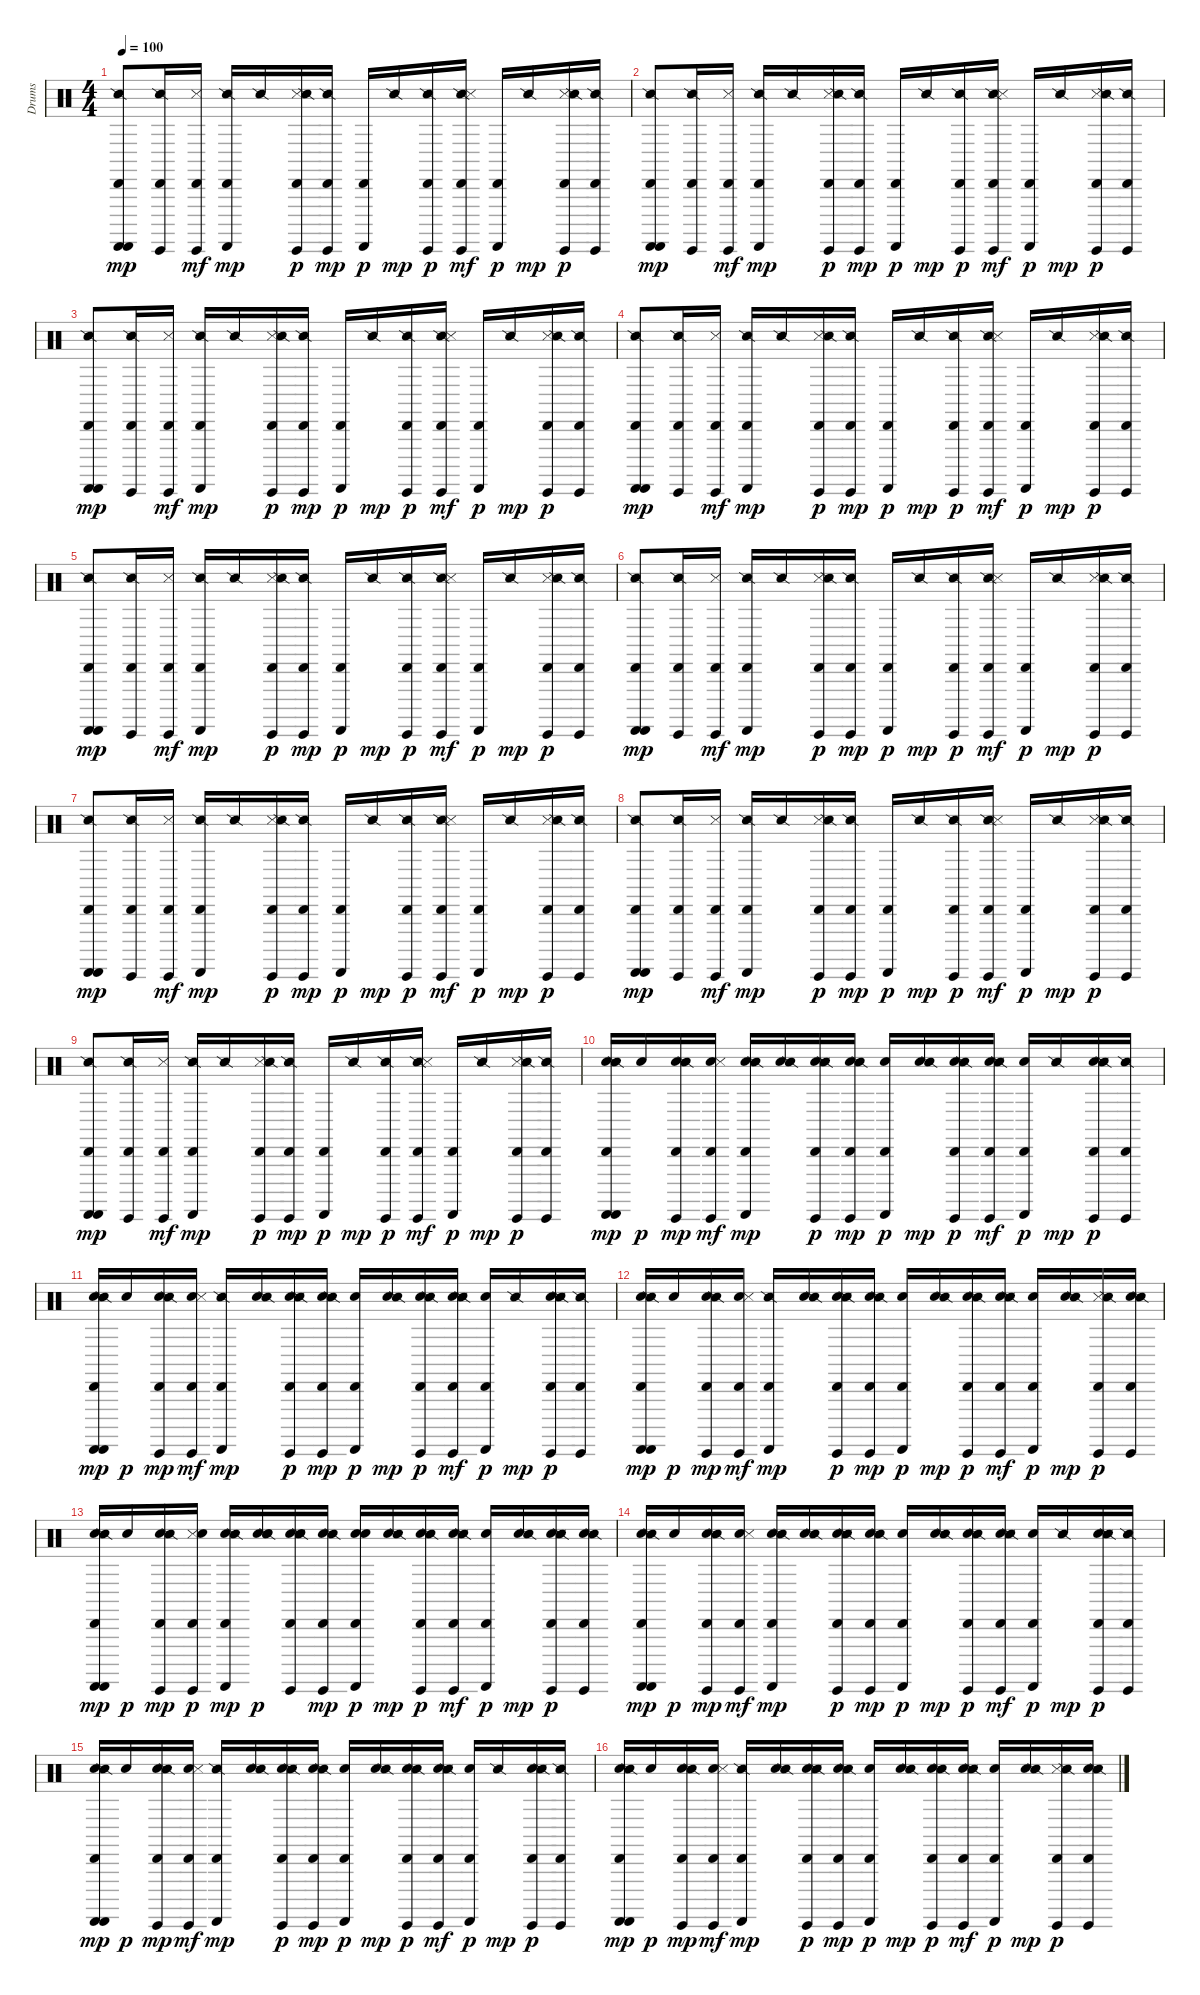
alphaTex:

\track ("Drums" "Drums") {instrument percussion}
\staff {score}
\articulation defaults
\ts (4 4)
\tempo 100
\clef neutral
\ks c
("Cabasa (hit)" "Guiro (scrap-return)" "Guiro (scrap-return)" "Snare (side stick) 2").8{dy mp} ("Cabasa (hit)" "Guiro (hit)" "Snare (side stick) 2").16 ("Guiro (hit)" "Cabasa (hit)" "Metronome (hit)").16{dy mf} ("Cabasa (hit)" "Guiro (scrap-return)" "Snare (side stick) 2").16{dy mp} "Snare (side stick) 2".16 ("Metronome (hit)" "Snare (side stick) 2" "Guiro (hit)" "Cabasa (hit)").16{dy p} ("Guiro (hit)" "Cabasa (hit)" "Snare (side stick) 2").16{dy mp} ("Cabasa (hit)" "Guiro (scrap-return)").16{dy p} "Snare (side stick) 2".16{dy mp} ("Snare (side stick) 2" "Guiro (hit)" "Cabasa (hit)").16{dy p} ("Guiro (hit)" "Snare (side stick) 2" "Cabasa (hit)" "Metronome (hit)").16{dy mf} ("Cabasa (hit)" "Guiro (scrap-return)").16{dy p} "Snare (side stick) 2".16{dy mp} ("Metronome (hit)" "Guiro (hit)" "Snare (side stick) 2" "Cabasa (hit)").16{dy p} ("Guiro (hit)" "Snare (side stick) 2" "Cabasa (hit)").16 |
("Cabasa (hit)" "Guiro (scrap-return)" "Guiro (scrap-return)" "Snare (side stick) 2").8{dy mp} ("Cabasa (hit)" "Guiro (hit)" "Snare (side stick) 2").16 ("Guiro (hit)" "Cabasa (hit)" "Metronome (hit)").16{dy mf} ("Cabasa (hit)" "Guiro (scrap-return)" "Snare (side stick) 2").16{dy mp} "Snare (side stick) 2".16 ("Metronome (hit)" "Snare (side stick) 2" "Guiro (hit)" "Cabasa (hit)").16{dy p} ("Guiro (hit)" "Cabasa (hit)" "Snare (side stick) 2").16{dy mp} ("Cabasa (hit)" "Guiro (scrap-return)").16{dy p} "Snare (side stick) 2".16{dy mp} ("Snare (side stick) 2" "Guiro (hit)" "Cabasa (hit)").16{dy p} ("Guiro (hit)" "Snare (side stick) 2" "Cabasa (hit)" "Metronome (hit)").16{dy mf} ("Cabasa (hit)" "Guiro (scrap-return)").16{dy p} "Snare (side stick) 2".16{dy mp} ("Metronome (hit)" "Guiro (hit)" "Snare (side stick) 2" "Cabasa (hit)").16{dy p} ("Guiro (hit)" "Snare (side stick) 2" "Cabasa (hit)").16 |
("Cabasa (hit)" "Guiro (scrap-return)" "Guiro (scrap-return)" "Snare (side stick) 2").8{dy mp} ("Cabasa (hit)" "Guiro (hit)" "Snare (side stick) 2").16 ("Guiro (hit)" "Cabasa (hit)" "Metronome (hit)").16{dy mf} ("Cabasa (hit)" "Guiro (scrap-return)" "Snare (side stick) 2").16{dy mp} "Snare (side stick) 2".16 ("Metronome (hit)" "Snare (side stick) 2" "Guiro (hit)" "Cabasa (hit)").16{dy p} ("Guiro (hit)" "Cabasa (hit)" "Snare (side stick) 2").16{dy mp} ("Cabasa (hit)" "Guiro (scrap-return)").16{dy p} "Snare (side stick) 2".16{dy mp} ("Snare (side stick) 2" "Guiro (hit)" "Cabasa (hit)").16{dy p} ("Guiro (hit)" "Snare (side stick) 2" "Cabasa (hit)" "Metronome (hit)").16{dy mf} ("Cabasa (hit)" "Guiro (scrap-return)").16{dy p} "Snare (side stick) 2".16{dy mp} ("Metronome (hit)" "Guiro (hit)" "Snare (side stick) 2" "Cabasa (hit)").16{dy p} ("Guiro (hit)" "Snare (side stick) 2" "Cabasa (hit)").16 |
("Cabasa (hit)" "Guiro (scrap-return)" "Guiro (scrap-return)" "Snare (side stick) 2").8{dy mp} ("Cabasa (hit)" "Guiro (hit)" "Snare (side stick) 2").16 ("Guiro (hit)" "Cabasa (hit)" "Metronome (hit)").16{dy mf} ("Cabasa (hit)" "Guiro (scrap-return)" "Snare (side stick) 2").16{dy mp} "Snare (side stick) 2".16 ("Metronome (hit)" "Snare (side stick) 2" "Guiro (hit)" "Cabasa (hit)").16{dy p} ("Guiro (hit)" "Cabasa (hit)" "Snare (side stick) 2").16{dy mp} ("Cabasa (hit)" "Guiro (scrap-return)").16{dy p} "Snare (side stick) 2".16{dy mp} ("Snare (side stick) 2" "Guiro (hit)" "Cabasa (hit)").16{dy p} ("Guiro (hit)" "Snare (side stick) 2" "Cabasa (hit)" "Metronome (hit)").16{dy mf} ("Cabasa (hit)" "Guiro (scrap-return)").16{dy p} "Snare (side stick) 2".16{dy mp} ("Metronome (hit)" "Guiro (hit)" "Snare (side stick) 2" "Cabasa (hit)").16{dy p} ("Guiro (hit)" "Snare (side stick) 2" "Cabasa (hit)").16 |
("Cabasa (hit)" "Guiro (scrap-return)" "Guiro (scrap-return)" "Snare (side stick) 2").8{dy mp} ("Cabasa (hit)" "Guiro (hit)" "Snare (side stick) 2").16 ("Guiro (hit)" "Cabasa (hit)" "Metronome (hit)").16{dy mf} ("Cabasa (hit)" "Guiro (scrap-return)" "Snare (side stick) 2").16{dy mp} "Snare (side stick) 2".16 ("Metronome (hit)" "Snare (side stick) 2" "Guiro (hit)" "Cabasa (hit)").16{dy p} ("Guiro (hit)" "Cabasa (hit)" "Snare (side stick) 2").16{dy mp} ("Cabasa (hit)" "Guiro (scrap-return)").16{dy p} "Snare (side stick) 2".16{dy mp} ("Snare (side stick) 2" "Guiro (hit)" "Cabasa (hit)").16{dy p} ("Guiro (hit)" "Snare (side stick) 2" "Cabasa (hit)" "Metronome (hit)").16{dy mf} ("Cabasa (hit)" "Guiro (scrap-return)").16{dy p} "Snare (side stick) 2".16{dy mp} ("Metronome (hit)" "Guiro (hit)" "Snare (side stick) 2" "Cabasa (hit)").16{dy p} ("Guiro (hit)" "Snare (side stick) 2" "Cabasa (hit)").16 |
("Cabasa (hit)" "Guiro (scrap-return)" "Guiro (scrap-return)" "Snare (side stick) 2").8{dy mp} ("Cabasa (hit)" "Guiro (hit)" "Snare (side stick) 2").16 ("Guiro (hit)" "Cabasa (hit)" "Metronome (hit)").16{dy mf} ("Cabasa (hit)" "Guiro (scrap-return)" "Snare (side stick) 2").16{dy mp} "Snare (side stick) 2".16 ("Metronome (hit)" "Snare (side stick) 2" "Guiro (hit)" "Cabasa (hit)").16{dy p} ("Guiro (hit)" "Cabasa (hit)" "Snare (side stick) 2").16{dy mp} ("Cabasa (hit)" "Guiro (scrap-return)").16{dy p} "Snare (side stick) 2".16{dy mp} ("Snare (side stick) 2" "Guiro (hit)" "Cabasa (hit)").16{dy p} ("Guiro (hit)" "Snare (side stick) 2" "Cabasa (hit)" "Metronome (hit)").16{dy mf} ("Cabasa (hit)" "Guiro (scrap-return)").16{dy p} "Snare (side stick) 2".16{dy mp} ("Metronome (hit)" "Guiro (hit)" "Snare (side stick) 2" "Cabasa (hit)").16{dy p} ("Guiro (hit)" "Snare (side stick) 2" "Cabasa (hit)").16 |
("Cabasa (hit)" "Guiro (scrap-return)" "Guiro (scrap-return)" "Snare (side stick) 2").8{dy mp} ("Cabasa (hit)" "Guiro (hit)" "Snare (side stick) 2").16 ("Guiro (hit)" "Cabasa (hit)" "Metronome (hit)").16{dy mf} ("Cabasa (hit)" "Guiro (scrap-return)" "Snare (side stick) 2").16{dy mp} "Snare (side stick) 2".16 ("Metronome (hit)" "Snare (side stick) 2" "Guiro (hit)" "Cabasa (hit)").16{dy p} ("Guiro (hit)" "Cabasa (hit)" "Snare (side stick) 2").16{dy mp} ("Cabasa (hit)" "Guiro (scrap-return)").16{dy p} "Snare (side stick) 2".16{dy mp} ("Snare (side stick) 2" "Guiro (hit)" "Cabasa (hit)").16{dy p} ("Guiro (hit)" "Snare (side stick) 2" "Cabasa (hit)" "Metronome (hit)").16{dy mf} ("Cabasa (hit)" "Guiro (scrap-return)").16{dy p} "Snare (side stick) 2".16{dy mp} ("Metronome (hit)" "Guiro (hit)" "Snare (side stick) 2" "Cabasa (hit)").16{dy p} ("Guiro (hit)" "Snare (side stick) 2" "Cabasa (hit)").16 |
("Cabasa (hit)" "Guiro (scrap-return)" "Guiro (scrap-return)" "Snare (side stick) 2").8{dy mp} ("Cabasa (hit)" "Guiro (hit)" "Snare (side stick) 2").16 ("Guiro (hit)" "Cabasa (hit)" "Metronome (hit)").16{dy mf} ("Cabasa (hit)" "Guiro (scrap-return)" "Snare (side stick) 2").16{dy mp} "Snare (side stick) 2".16 ("Metronome (hit)" "Snare (side stick) 2" "Guiro (hit)" "Cabasa (hit)").16{dy p} ("Guiro (hit)" "Cabasa (hit)" "Snare (side stick) 2").16{dy mp} ("Cabasa (hit)" "Guiro (scrap-return)").16{dy p} "Snare (side stick) 2".16{dy mp} ("Snare (side stick) 2" "Guiro (hit)" "Cabasa (hit)").16{dy p} ("Guiro (hit)" "Snare (side stick) 2" "Cabasa (hit)" "Metronome (hit)").16{dy mf} ("Cabasa (hit)" "Guiro (scrap-return)").16{dy p} "Snare (side stick) 2".16{dy mp} ("Metronome (hit)" "Guiro (hit)" "Snare (side stick) 2" "Cabasa (hit)").16{dy p} ("Guiro (hit)" "Snare (side stick) 2" "Cabasa (hit)").16 |
("Cabasa (hit)" "Guiro (scrap-return)" "Guiro (scrap-return)" "Snare (side stick) 2").8{dy mp} ("Cabasa (hit)" "Guiro (hit)" "Snare (side stick) 2").16 ("Guiro (hit)" "Cabasa (hit)" "Metronome (hit)").16{dy mf} ("Cabasa (hit)" "Guiro (scrap-return)" "Snare (side stick) 2").16{dy mp} "Snare (side stick) 2".16 ("Metronome (hit)" "Snare (side stick) 2" "Guiro (hit)" "Cabasa (hit)").16{dy p} ("Guiro (hit)" "Cabasa (hit)" "Snare (side stick) 2").16{dy mp} ("Cabasa (hit)" "Guiro (scrap-return)").16{dy p} "Snare (side stick) 2".16{dy mp} ("Snare (side stick) 2" "Guiro (hit)" "Cabasa (hit)").16{dy p} ("Guiro (hit)" "Snare (side stick) 2" "Cabasa (hit)" "Metronome (hit)").16{dy mf} ("Cabasa (hit)" "Guiro (scrap-return)").16{dy p} "Snare (side stick) 2".16{dy mp} ("Metronome (hit)" "Guiro (hit)" "Snare (side stick) 2" "Cabasa (hit)").16{dy p} ("Guiro (hit)" "Snare (side stick) 2" "Cabasa (hit)").16 |
("Electric Snare (hit)" "Cabasa (hit)" "Guiro (scrap-return)" "Guiro (scrap-return)" "Snare (side stick) 2").16{dy mp} "Electric Snare (hit)".16{dy p} ("Electric Snare (hit)" "Cabasa (hit)" "Guiro (hit)" "Snare (side stick) 2").16{dy mp} ("Electric Snare (hit)" "Guiro (hit)" "Cabasa (hit)" "Metronome (hit)").16{dy mf} ("Electric Snare (hit)" "Cabasa (hit)" "Guiro (scrap-return)" "Snare (side stick) 2").16{dy mp} ("Electric Snare (hit)" "Snare (side stick) 2").16 ("Electric Snare (hit)" "Metronome (hit)" "Snare (side stick) 2" "Guiro (hit)" "Cabasa (hit)").16{dy p} ("Electric Snare (hit)" "Guiro (hit)" "Cabasa (hit)" "Snare (side stick) 2").16{dy mp} ("Electric Snare (hit)" "Cabasa (hit)" "Guiro (scrap-return)").16{dy p} ("Electric Snare (hit)" "Snare (side stick) 2").16{dy mp} ("Electric Snare (hit)" "Snare (side stick) 2" "Guiro (hit)" "Cabasa (hit)").16{dy p} ("Electric Snare (hit)" "Guiro (hit)" "Snare (side stick) 2" "Cabasa (hit)" "Metronome (hit)").16{dy mf} ("Electric Snare (hit)" "Cabasa (hit)" "Guiro (scrap-return)").16{dy p} "Snare (side stick) 2".16{dy mp} ("Electric Snare (hit)" "Metronome (hit)" "Guiro (hit)" "Snare (side stick) 2" "Cabasa (hit)").16{dy p} ("Guiro (hit)" "Snare (side stick) 2" "Cabasa (hit)").16 |
("Electric Snare (hit)" "Cabasa (hit)" "Guiro (scrap-return)" "Guiro (scrap-return)" "Snare (side stick) 2").16{dy mp} "Electric Snare (hit)".16{dy p} ("Electric Snare (hit)" "Cabasa (hit)" "Guiro (hit)" "Snare (side stick) 2").16{dy mp} ("Electric Snare (hit)" "Guiro (hit)" "Cabasa (hit)" "Metronome (hit)").16{dy mf} ("Cabasa (hit)" "Guiro (scrap-return)" "Snare (side stick) 2").16{dy mp} ("Electric Snare (hit)" "Snare (side stick) 2").16 ("Electric Snare (hit)" "Metronome (hit)" "Snare (side stick) 2" "Guiro (hit)" "Cabasa (hit)").16{dy p} ("Electric Snare (hit)" "Guiro (hit)" "Cabasa (hit)" "Snare (side stick) 2").16{dy mp} ("Electric Snare (hit)" "Cabasa (hit)" "Guiro (scrap-return)").16{dy p} ("Electric Snare (hit)" "Snare (side stick) 2").16{dy mp} ("Electric Snare (hit)" "Snare (side stick) 2" "Guiro (hit)" "Cabasa (hit)").16{dy p} ("Electric Snare (hit)" "Guiro (hit)" "Snare (side stick) 2" "Cabasa (hit)" "Metronome (hit)").16{dy mf} ("Electric Snare (hit)" "Cabasa (hit)" "Guiro (scrap-return)").16{dy p} "Snare (side stick) 2".16{dy mp} ("Electric Snare (hit)" "Metronome (hit)" "Guiro (hit)" "Snare (side stick) 2" "Cabasa (hit)").16{dy p} ("Guiro (hit)" "Snare (side stick) 2" "Cabasa (hit)").16 |
("Electric Snare (hit)" "Cabasa (hit)" "Guiro (scrap-return)" "Guiro (scrap-return)" "Snare (side stick) 2").16{dy mp} "Electric Snare (hit)".16{dy p} ("Electric Snare (hit)" "Cabasa (hit)" "Guiro (hit)" "Snare (side stick) 2").16{dy mp} ("Electric Snare (hit)" "Guiro (hit)" "Cabasa (hit)" "Metronome (hit)").16{dy mf} ("Cabasa (hit)" "Guiro (scrap-return)" "Snare (side stick) 2").16{dy mp} ("Electric Snare (hit)" "Snare (side stick) 2").16 ("Electric Snare (hit)" "Metronome (hit)" "Snare (side stick) 2" "Guiro (hit)" "Cabasa (hit)").16{dy p} ("Electric Snare (hit)" "Guiro (hit)" "Cabasa (hit)" "Snare (side stick) 2").16{dy mp} ("Electric Snare (hit)" "Cabasa (hit)" "Guiro (scrap-return)").16{dy p} ("Electric Snare (hit)" "Snare (side stick) 2").16{dy mp} ("Electric Snare (hit)" "Snare (side stick) 2" "Guiro (hit)" "Cabasa (hit)").16{dy p} ("Electric Snare (hit)" "Guiro (hit)" "Snare (side stick) 2" "Cabasa (hit)" "Metronome (hit)").16{dy mf} ("Electric Snare (hit)" "Cabasa (hit)" "Guiro (scrap-return)").16{dy p} ("Electric Snare (hit)" "Snare (side stick) 2").16{dy mp} ("Metronome (hit)" "Guiro (hit)" "Snare (side stick) 2" "Cabasa (hit)").16{dy p} ("Electric Snare (hit)" "Guiro (hit)" "Snare (side stick) 2" "Cabasa (hit)").16 |
("Electric Snare (hit)" "Cabasa (hit)" "Guiro (scrap-return)" "Guiro (scrap-return)" "Snare (side stick) 2").16{dy mp} "Electric Snare (hit)".16{dy p} ("Electric Snare (hit)" "Cabasa (hit)" "Guiro (hit)" "Snare (side stick) 2").16{dy mp} ("Guiro (hit)" "Cabasa (hit)" "Metronome (hit)" "Electric Snare (hit)").16{dy p} ("Electric Snare (hit)" "Cabasa (hit)" "Guiro (scrap-return)" "Snare (side stick) 2").16{dy mp} ("Electric Snare (hit)" "Snare (side stick) 2" "Electric Snare (hit)").16{dy p} ("Electric Snare (hit)" "Electric Snare (hit)" "Metronome (hit)" "Snare (side stick) 2" "Guiro (hit)" "Cabasa (hit)").16 ("Electric Snare (hit)" "Guiro (hit)" "Cabasa (hit)" "Snare (side stick) 2").16{dy mp} ("Electric Snare (hit)" "Cabasa (hit)" "Guiro (scrap-return)" "Electric Snare (hit)").16{dy p} ("Electric Snare (hit)" "Snare (side stick) 2").16{dy mp} ("Electric Snare (hit)" "Snare (side stick) 2" "Guiro (hit)" "Cabasa (hit)").16{dy p} ("Electric Snare (hit)" "Guiro (hit)" "Snare (side stick) 2" "Cabasa (hit)" "Metronome (hit)").16{dy mf} ("Electric Snare (hit)" "Cabasa (hit)" "Guiro (scrap-return)").16{dy p} ("Electric Snare (hit)" "Snare (side stick) 2").16{dy mp} ("Electric Snare (hit)" "Metronome (hit)" "Guiro (hit)" "Snare (side stick) 2" "Cabasa (hit)").16{dy p} ("Electric Snare (hit)" "Guiro (hit)" "Snare (side stick) 2" "Cabasa (hit)").16 |
("Electric Snare (hit)" "Cabasa (hit)" "Guiro (scrap-return)" "Guiro (scrap-return)" "Snare (side stick) 2").16{dy mp} "Electric Snare (hit)".16{dy p} ("Electric Snare (hit)" "Cabasa (hit)" "Guiro (hit)" "Snare (side stick) 2").16{dy mp} ("Electric Snare (hit)" "Guiro (hit)" "Cabasa (hit)" "Metronome (hit)").16{dy mf} ("Electric Snare (hit)" "Cabasa (hit)" "Guiro (scrap-return)" "Snare (side stick) 2").16{dy mp} ("Electric Snare (hit)" "Snare (side stick) 2").16 ("Electric Snare (hit)" "Metronome (hit)" "Snare (side stick) 2" "Guiro (hit)" "Cabasa (hit)").16{dy p} ("Electric Snare (hit)" "Guiro (hit)" "Cabasa (hit)" "Snare (side stick) 2").16{dy mp} ("Electric Snare (hit)" "Cabasa (hit)" "Guiro (scrap-return)").16{dy p} ("Electric Snare (hit)" "Snare (side stick) 2").16{dy mp} ("Electric Snare (hit)" "Snare (side stick) 2" "Guiro (hit)" "Cabasa (hit)").16{dy p} ("Electric Snare (hit)" "Guiro (hit)" "Snare (side stick) 2" "Cabasa (hit)" "Metronome (hit)").16{dy mf} ("Electric Snare (hit)" "Cabasa (hit)" "Guiro (scrap-return)").16{dy p} "Snare (side stick) 2".16{dy mp} ("Electric Snare (hit)" "Metronome (hit)" "Guiro (hit)" "Snare (side stick) 2" "Cabasa (hit)").16{dy p} ("Guiro (hit)" "Snare (side stick) 2" "Cabasa (hit)").16 |
("Electric Snare (hit)" "Cabasa (hit)" "Guiro (scrap-return)" "Guiro (scrap-return)" "Snare (side stick) 2").16{dy mp} "Electric Snare (hit)".16{dy p} ("Electric Snare (hit)" "Cabasa (hit)" "Guiro (hit)" "Snare (side stick) 2").16{dy mp} ("Electric Snare (hit)" "Guiro (hit)" "Cabasa (hit)" "Metronome (hit)").16{dy mf} ("Cabasa (hit)" "Guiro (scrap-return)" "Snare (side stick) 2").16{dy mp} ("Electric Snare (hit)" "Snare (side stick) 2").16 ("Electric Snare (hit)" "Metronome (hit)" "Snare (side stick) 2" "Guiro (hit)" "Cabasa (hit)").16{dy p} ("Electric Snare (hit)" "Guiro (hit)" "Cabasa (hit)" "Snare (side stick) 2").16{dy mp} ("Electric Snare (hit)" "Cabasa (hit)" "Guiro (scrap-return)").16{dy p} ("Electric Snare (hit)" "Snare (side stick) 2").16{dy mp} ("Electric Snare (hit)" "Snare (side stick) 2" "Guiro (hit)" "Cabasa (hit)").16{dy p} ("Electric Snare (hit)" "Guiro (hit)" "Snare (side stick) 2" "Cabasa (hit)" "Metronome (hit)").16{dy mf} ("Electric Snare (hit)" "Cabasa (hit)" "Guiro (scrap-return)").16{dy p} "Snare (side stick) 2".16{dy mp} ("Electric Snare (hit)" "Metronome (hit)" "Guiro (hit)" "Snare (side stick) 2" "Cabasa (hit)").16{dy p} ("Guiro (hit)" "Snare (side stick) 2" "Cabasa (hit)").16 |
("Electric Snare (hit)" "Cabasa (hit)" "Guiro (scrap-return)" "Guiro (scrap-return)" "Snare (side stick) 2").16{dy mp} "Electric Snare (hit)".16{dy p} ("Electric Snare (hit)" "Cabasa (hit)" "Guiro (hit)" "Snare (side stick) 2").16{dy mp} ("Electric Snare (hit)" "Guiro (hit)" "Cabasa (hit)" "Metronome (hit)").16{dy mf} ("Cabasa (hit)" "Guiro (scrap-return)" "Snare (side stick) 2").16{dy mp} ("Electric Snare (hit)" "Snare (side stick) 2").16 ("Electric Snare (hit)" "Metronome (hit)" "Snare (side stick) 2" "Guiro (hit)" "Cabasa (hit)").16{dy p} ("Electric Snare (hit)" "Guiro (hit)" "Cabasa (hit)" "Snare (side stick) 2").16{dy mp} ("Electric Snare (hit)" "Cabasa (hit)" "Guiro (scrap-return)").16{dy p} ("Electric Snare (hit)" "Snare (side stick) 2").16{dy mp} ("Electric Snare (hit)" "Snare (side stick) 2" "Guiro (hit)" "Cabasa (hit)").16{dy p} ("Electric Snare (hit)" "Guiro (hit)" "Snare (side stick) 2" "Cabasa (hit)" "Metronome (hit)").16{dy mf} ("Electric Snare (hit)" "Cabasa (hit)" "Guiro (scrap-return)").16{dy p} ("Electric Snare (hit)" "Snare (side stick) 2").16{dy mp} ("Metronome (hit)" "Guiro (hit)" "Snare (side stick) 2" "Cabasa (hit)").16{dy p} ("Electric Snare (hit)" "Guiro (hit)" "Snare (side stick) 2" "Cabasa (hit)").16
